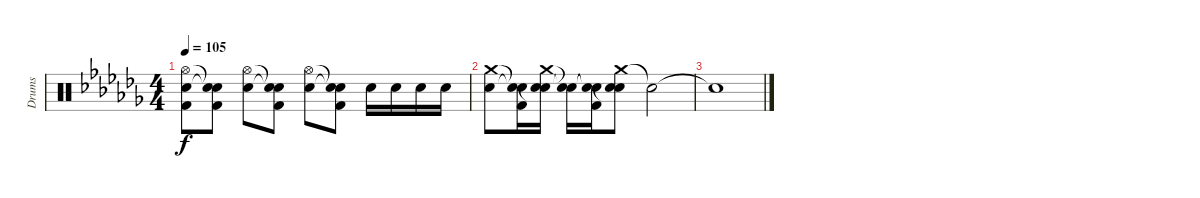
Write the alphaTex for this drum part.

\track ("Drums" "Drums") {instrument percussion}
\staff {score}
\articulation defaults
\ts (4 4)
\tempo 105
\clef neutral
\ks abminor
("Hi-Hat (open)" "Electric Snare (hit)" "Kick (hit) 2").8{dy f} ("Snare (hit)"{t} "Snare (hit)"{t} "Kick (hit) 2").8 ("Hi-Hat (open)" "Electric Snare (hit)").8 ("Snare (hit)"{t} "Snare (hit)"{t} "Kick (hit) 2").8 ("Hi-Hat (open)" "Electric Snare (hit)").8 ("Snare (hit)"{t} "Snare (hit)"{t} "Kick (hit) 2").8 "Electric Snare (hit)".16 "Electric Snare (hit)".16 "Electric Snare (hit)".16 "Electric Snare (hit)".16 |
("Crash medium (hit)" "Electric Snare (hit)").8 ("Snare (hit)"{t} "Snare (hit)"{t} "Kick (hit) 2").16 ("Crash medium (hit)" "Electric Snare (hit)" "Snare (hit)"{t}).16 ("Snare (hit)"{t} "Snare (hit)"{t}).16 ("Snare (hit)"{t} "Snare (hit)"{t} "Kick (hit) 2").16 ("Crash medium (hit)" "Electric Snare (hit)" "Snare (hit)"{t}).8 "Snare (hit)"{t}.2 |
"Snare (hit)"{t}.1
